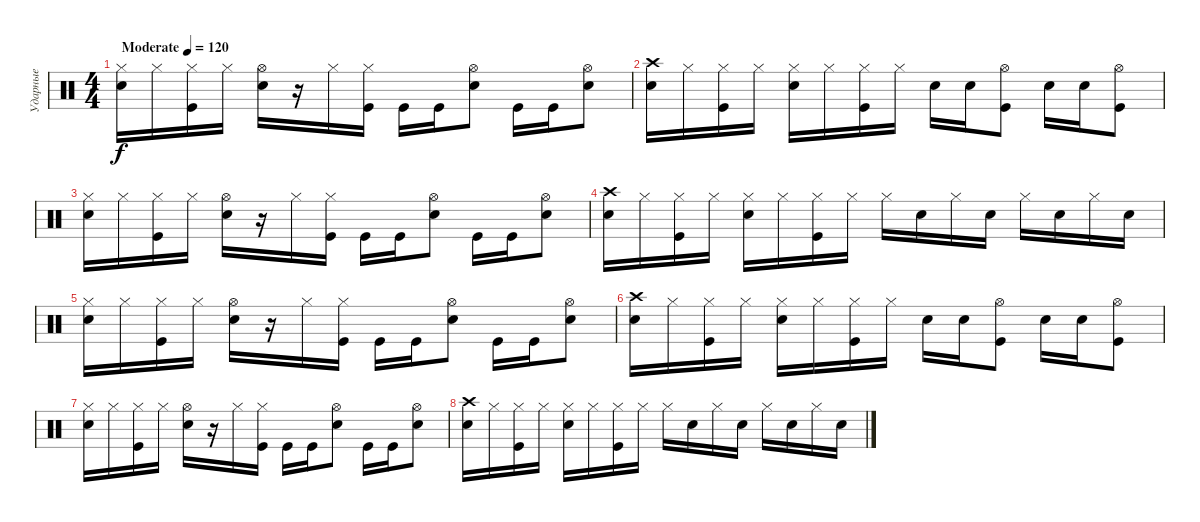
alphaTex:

\track ("Ударные" "Ударные") {instrument percussion}
\staff {score}
\articulation defaults
\ts (4 4)
\tempo (120 "Moderate")
\clef neutral
\ks c
("Hi-Hat (closed)" "Snare (hit) 2").16{dy f} "Hi-Hat (closed)".16 ("Hi-Hat (closed)" "Kick (hit)").16 "Hi-Hat (closed)".16 ("Hi-Hat (open)" "Snare (hit) 2").16 r.16 "Hi-Hat (closed)".16 ("Kick (hit)" "Hi-Hat (closed)").16 "Kick (hit)".16 "Kick (hit)".16 ("Hi-Hat (open)" "Snare (hit) 2").8 "Kick (hit)".16 "Kick (hit)".16 ("Hi-Hat (open)" "Snare (hit) 2").8 |
("Crash high (hit)" "Snare (hit) 2").16 "Hi-Hat (closed)".16 ("Hi-Hat (closed)" "Kick (hit)").16 "Hi-Hat (closed)".16 ("Hi-Hat (closed)" "Snare (hit) 2").16 "Hi-Hat (closed)".16 ("Hi-Hat (closed)" "Kick (hit)").16 "Hi-Hat (closed)".16 "Snare (hit) 2".16 "Snare (hit) 2".16 ("Hi-Hat (open)" "Kick (hit)").8 "Snare (hit) 2".16 "Snare (hit) 2".16 ("Hi-Hat (open)" "Kick (hit)").8 |
("Hi-Hat (closed)" "Snare (hit) 2").16 "Hi-Hat (closed)".16 ("Hi-Hat (closed)" "Kick (hit)").16 "Hi-Hat (closed)".16 ("Hi-Hat (open)" "Snare (hit) 2").16 r.16 "Hi-Hat (closed)".16 ("Kick (hit)" "Hi-Hat (closed)").16 "Kick (hit)".16 "Kick (hit)".16 ("Hi-Hat (open)" "Snare (hit) 2").8 "Kick (hit)".16 "Kick (hit)".16 ("Hi-Hat (open)" "Snare (hit) 2").8 |
("Crash high (hit)" "Snare (hit) 2").16 "Hi-Hat (closed)".16 ("Hi-Hat (closed)" "Kick (hit)").16 "Hi-Hat (closed)".16 ("Hi-Hat (closed)" "Snare (hit) 2").16 "Hi-Hat (closed)".16 ("Hi-Hat (closed)" "Kick (hit)").16 "Hi-Hat (closed)".16 "Hi-Hat (closed)".16 "Electric Snare (hit)".16 "Hi-Hat (closed)".16 "Electric Snare (hit)".16 "Hi-Hat (closed)".16 "Electric Snare (hit)".16 "Hi-Hat (closed)".16 "Electric Snare (hit)".16 |
("Hi-Hat (closed)" "Snare (hit) 2").16 "Hi-Hat (closed)".16 ("Hi-Hat (closed)" "Kick (hit)").16 "Hi-Hat (closed)".16 ("Hi-Hat (open)" "Snare (hit) 2").16 r.16 "Hi-Hat (closed)".16 ("Kick (hit)" "Hi-Hat (closed)").16 "Kick (hit)".16 "Kick (hit)".16 ("Hi-Hat (open)" "Snare (hit) 2").8 "Kick (hit)".16 "Kick (hit)".16 ("Hi-Hat (open)" "Snare (hit) 2").8 |
("Crash high (hit)" "Snare (hit) 2").16 "Hi-Hat (closed)".16 ("Hi-Hat (closed)" "Kick (hit)").16 "Hi-Hat (closed)".16 ("Hi-Hat (closed)" "Snare (hit) 2").16 "Hi-Hat (closed)".16 ("Hi-Hat (closed)" "Kick (hit)").16 "Hi-Hat (closed)".16 "Snare (hit) 2".16 "Snare (hit) 2".16 ("Hi-Hat (open)" "Kick (hit)").8 "Snare (hit) 2".16 "Snare (hit) 2".16 ("Hi-Hat (open)" "Kick (hit)").8 |
("Hi-Hat (closed)" "Snare (hit) 2").16 "Hi-Hat (closed)".16 ("Hi-Hat (closed)" "Kick (hit)").16 "Hi-Hat (closed)".16 ("Hi-Hat (open)" "Snare (hit) 2").16 r.16 "Hi-Hat (closed)".16 ("Kick (hit)" "Hi-Hat (closed)").16 "Kick (hit)".16 "Kick (hit)".16 ("Hi-Hat (open)" "Snare (hit) 2").8 "Kick (hit)".16 "Kick (hit)".16 ("Hi-Hat (open)" "Snare (hit) 2").8 |
("Crash high (hit)" "Snare (hit) 2").16 "Hi-Hat (closed)".16 ("Hi-Hat (closed)" "Kick (hit)").16 "Hi-Hat (closed)".16 ("Hi-Hat (closed)" "Snare (hit) 2").16 "Hi-Hat (closed)".16 ("Hi-Hat (closed)" "Kick (hit)").16 "Hi-Hat (closed)".16 "Hi-Hat (closed)".16 "Electric Snare (hit)".16 "Hi-Hat (closed)".16 "Electric Snare (hit)".16 "Hi-Hat (closed)".16 "Electric Snare (hit)".16 "Hi-Hat (closed)".16 "Electric Snare (hit)".16
